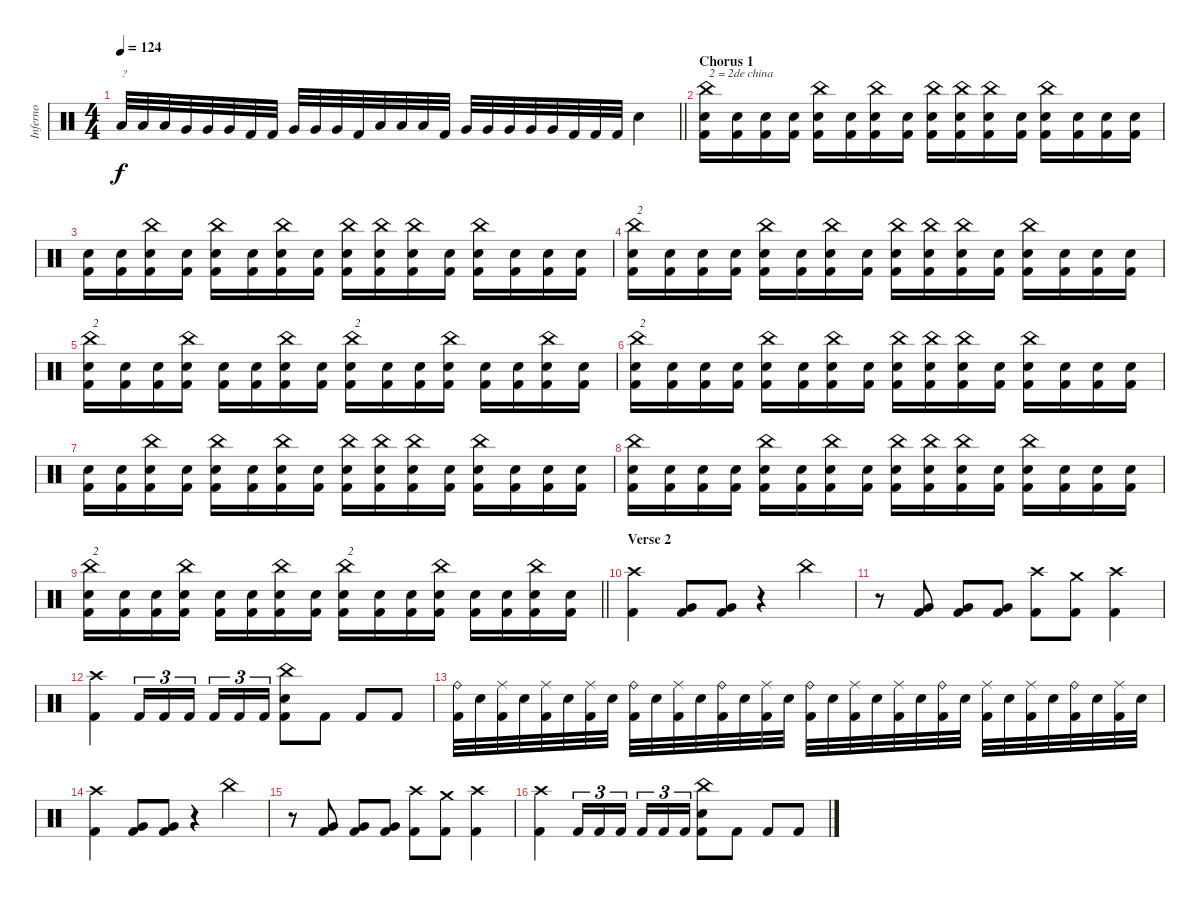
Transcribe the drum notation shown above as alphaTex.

\track ("Inferno" "Inferno") {instrument percussion}
\staff {score}
\articulation defaults
\ts (4 4)
\tempo 124
\clef neutral
\barLineRight lightlight
\ks c "Low Tom (hit)".32{txt "?" dy f} "Low Tom (hit)".32 "Low Tom (hit)".32 "Very Low Tom (hit)".32 "Very Low Tom (hit)".32 "Very Low Tom (hit)".32 "Kick (hit) 2".32 "Kick (hit) 2".32 "Very Low Tom (hit)".32 "Very Low Tom (hit)".32 "Very Low Tom (hit)".32 "Kick (hit) 2".32 "Low Floor Tom (hit)".32 "Low Floor Tom (hit)".32 "Low Floor Tom (hit)".32 "Kick (hit) 2".32 "Very Low Tom (hit)".32 "Very Low Tom (hit)".32 "Very Low Tom (hit)".32 "Very Low Tom (hit)".32 "Very Low Tom (hit)".32 "Kick (hit) 2".32 "Kick (hit) 2".32 "Kick (hit) 2".32 "Electric Snare (hit)".4
|
\section ("" "Chorus 1")
("China (hit)" "Electric Snare (hit)" "Kick (hit) 2").16{txt "2 = 2de china"} ("Electric Snare (hit)" "Kick (hit) 2").16 ("Electric Snare (hit)" "Kick (hit) 2").16 ("Electric Snare (hit)" "Kick (hit) 2").16 ("China (hit)" "Electric Snare (hit)" "Kick (hit) 2").16 ("Electric Snare (hit)" "Kick (hit) 2").16 ("China (hit)" "Electric Snare (hit)" "Kick (hit) 2").16 ("Electric Snare (hit)" "Kick (hit) 2").16 ("China (hit)" "Electric Snare (hit)" "Kick (hit) 2").16 ("China (hit)" "Electric Snare (hit)" "Kick (hit) 2").16 ("China (hit)" "Electric Snare (hit)" "Kick (hit) 2").16 ("Electric Snare (hit)" "Kick (hit) 2").16 ("China (hit)" "Electric Snare (hit)" "Kick (hit) 2").16 ("Electric Snare (hit)" "Kick (hit) 2").16 ("Electric Snare (hit)" "Kick (hit) 2").16 ("Electric Snare (hit)" "Kick (hit) 2").16 |
("Electric Snare (hit)" "Kick (hit) 2").16 ("Electric Snare (hit)" "Kick (hit) 2").16 ("China (hit)" "Electric Snare (hit)" "Kick (hit) 2").16 ("Electric Snare (hit)" "Kick (hit) 2").16 ("China (hit)" "Electric Snare (hit)" "Kick (hit) 2").16 ("Electric Snare (hit)" "Kick (hit) 2").16 ("China (hit)" "Electric Snare (hit)" "Kick (hit) 2").16 ("Electric Snare (hit)" "Kick (hit) 2").16 ("China (hit)" "Electric Snare (hit)" "Kick (hit) 2").16 ("China (hit)" "Electric Snare (hit)" "Kick (hit) 2").16 ("China (hit)" "Electric Snare (hit)" "Kick (hit) 2").16 ("Electric Snare (hit)" "Kick (hit) 2").16 ("China (hit)" "Electric Snare (hit)" "Kick (hit) 2").16 ("Electric Snare (hit)" "Kick (hit) 2").16 ("Electric Snare (hit)" "Kick (hit) 2").16 ("Electric Snare (hit)" "Kick (hit) 2").16 |
("China (hit)" "Electric Snare (hit)" "Kick (hit) 2").16{txt "2"} ("Electric Snare (hit)" "Kick (hit) 2").16 ("Electric Snare (hit)" "Kick (hit) 2").16 ("Electric Snare (hit)" "Kick (hit) 2").16 ("China (hit)" "Electric Snare (hit)" "Kick (hit) 2").16 ("Electric Snare (hit)" "Kick (hit) 2").16 ("China (hit)" "Electric Snare (hit)" "Kick (hit) 2").16 ("Electric Snare (hit)" "Kick (hit) 2").16 ("China (hit)" "Electric Snare (hit)" "Kick (hit) 2").16 ("China (hit)" "Electric Snare (hit)" "Kick (hit) 2").16 ("China (hit)" "Electric Snare (hit)" "Kick (hit) 2").16 ("Electric Snare (hit)" "Kick (hit) 2").16 ("China (hit)" "Electric Snare (hit)" "Kick (hit) 2").16 ("Electric Snare (hit)" "Kick (hit) 2").16 ("Electric Snare (hit)" "Kick (hit) 2").16 ("Electric Snare (hit)" "Kick (hit) 2").16 |
("China (hit)" "Electric Snare (hit)" "Kick (hit) 2").16{txt "2"} ("Electric Snare (hit)" "Kick (hit) 2").16 ("Electric Snare (hit)" "Kick (hit) 2").16 ("China (hit)" "Electric Snare (hit)" "Kick (hit) 2").16 ("Electric Snare (hit)" "Kick (hit) 2").16 ("Electric Snare (hit)" "Kick (hit) 2").16 ("China (hit)" "Electric Snare (hit)" "Kick (hit) 2").16 ("Electric Snare (hit)" "Kick (hit) 2").16 ("China (hit)" "Electric Snare (hit)" "Kick (hit) 2").16{txt "2"} ("Electric Snare (hit)" "Kick (hit) 2").16 ("Electric Snare (hit)" "Kick (hit) 2").16 ("China (hit)" "Electric Snare (hit)" "Kick (hit) 2").16 ("Electric Snare (hit)" "Kick (hit) 2").16 ("Electric Snare (hit)" "Kick (hit) 2").16 ("China (hit)" "Electric Snare (hit)" "Kick (hit) 2").16 ("Electric Snare (hit)" "Kick (hit) 2").16 |
("China (hit)" "Electric Snare (hit)" "Kick (hit) 2").16{txt "2"} ("Electric Snare (hit)" "Kick (hit) 2").16 ("Electric Snare (hit)" "Kick (hit) 2").16 ("Electric Snare (hit)" "Kick (hit) 2").16 ("China (hit)" "Electric Snare (hit)" "Kick (hit) 2").16 ("Electric Snare (hit)" "Kick (hit) 2").16 ("China (hit)" "Electric Snare (hit)" "Kick (hit) 2").16 ("Electric Snare (hit)" "Kick (hit) 2").16 ("China (hit)" "Electric Snare (hit)" "Kick (hit) 2").16 ("China (hit)" "Electric Snare (hit)" "Kick (hit) 2").16 ("China (hit)" "Electric Snare (hit)" "Kick (hit) 2").16 ("Electric Snare (hit)" "Kick (hit) 2").16 ("China (hit)" "Electric Snare (hit)" "Kick (hit) 2").16 ("Electric Snare (hit)" "Kick (hit) 2").16 ("Electric Snare (hit)" "Kick (hit) 2").16 ("Electric Snare (hit)" "Kick (hit) 2").16 |
("Electric Snare (hit)" "Kick (hit) 2").16 ("Electric Snare (hit)" "Kick (hit) 2").16 ("China (hit)" "Electric Snare (hit)" "Kick (hit) 2").16 ("Electric Snare (hit)" "Kick (hit) 2").16 ("China (hit)" "Electric Snare (hit)" "Kick (hit) 2").16 ("Electric Snare (hit)" "Kick (hit) 2").16 ("China (hit)" "Electric Snare (hit)" "Kick (hit) 2").16 ("Electric Snare (hit)" "Kick (hit) 2").16 ("China (hit)" "Electric Snare (hit)" "Kick (hit) 2").16 ("China (hit)" "Electric Snare (hit)" "Kick (hit) 2").16 ("China (hit)" "Electric Snare (hit)" "Kick (hit) 2").16 ("Electric Snare (hit)" "Kick (hit) 2").16 ("China (hit)" "Electric Snare (hit)" "Kick (hit) 2").16 ("Electric Snare (hit)" "Kick (hit) 2").16 ("Electric Snare (hit)" "Kick (hit) 2").16 ("Electric Snare (hit)" "Kick (hit) 2").16 |
("China (hit)" "Electric Snare (hit)" "Kick (hit) 2").16 ("Electric Snare (hit)" "Kick (hit) 2").16 ("Electric Snare (hit)" "Kick (hit) 2").16 ("Electric Snare (hit)" "Kick (hit) 2").16 ("China (hit)" "Electric Snare (hit)" "Kick (hit) 2").16 ("Electric Snare (hit)" "Kick (hit) 2").16 ("China (hit)" "Electric Snare (hit)" "Kick (hit) 2").16 ("Electric Snare (hit)" "Kick (hit) 2").16 ("China (hit)" "Electric Snare (hit)" "Kick (hit) 2").16 ("China (hit)" "Electric Snare (hit)" "Kick (hit) 2").16 ("China (hit)" "Electric Snare (hit)" "Kick (hit) 2").16 ("Electric Snare (hit)" "Kick (hit) 2").16 ("China (hit)" "Electric Snare (hit)" "Kick (hit) 2").16 ("Electric Snare (hit)" "Kick (hit) 2").16 ("Electric Snare (hit)" "Kick (hit) 2").16 ("Electric Snare (hit)" "Kick (hit) 2").16 |
\barLineRight lightlight
("China (hit)" "Electric Snare (hit)" "Kick (hit) 2").16{txt "2"} ("Electric Snare (hit)" "Kick (hit) 2").16 ("Electric Snare (hit)" "Kick (hit) 2").16 ("China (hit)" "Electric Snare (hit)" "Kick (hit) 2").16 ("Electric Snare (hit)" "Kick (hit) 2").16 ("Electric Snare (hit)" "Kick (hit) 2").16 ("China (hit)" "Electric Snare (hit)" "Kick (hit) 2").16 ("Electric Snare (hit)" "Kick (hit) 2").16 ("China (hit)" "Electric Snare (hit)" "Kick (hit) 2").16{txt "2"} ("Electric Snare (hit)" "Kick (hit) 2").16 ("Electric Snare (hit)" "Kick (hit) 2").16 ("China (hit)" "Electric Snare (hit)" "Kick (hit) 2").16 ("Electric Snare (hit)" "Kick (hit) 2").16 ("Electric Snare (hit)" "Kick (hit) 2").16 ("China (hit)" "Electric Snare (hit)" "Kick (hit) 2").16 ("Electric Snare (hit)" "Kick (hit) 2").16 |
\section ("" "Verse 2")
("Crash high (hit)" "Kick (hit) 2").4 ("Very Low Tom (hit)" "Kick (hit) 2").8 ("Very Low Tom (hit)" "Kick (hit) 2").8 r.4 "China (hit)".4 |
r.8 ("Very Low Tom (hit)" "Kick (hit) 2").8 ("Very Low Tom (hit)" "Kick (hit) 2").8 ("Very Low Tom (hit)" "Kick (hit) 2").8 ("Crash high (hit)" "Kick (hit) 2").8 ("Crash medium (hit)" "Kick (hit) 2").8 ("Crash high (hit)" "Kick (hit) 2").4 |
("Crash high (hit)" "Kick (hit) 2").4 "Kick (hit) 2".16{tu (3 2)} "Kick (hit) 2".16{tu (3 2)} "Kick (hit) 2".16{tu (3 2) beam splitsecondary} "Kick (hit) 2".16{tu (3 2)} "Kick (hit) 2".16{tu (3 2)} "Kick (hit) 2".16{tu (3 2)} ("China (hit)" "Electric Snare (hit)" "Kick (hit) 2").8 "Kick (hit) 2".8 "Kick (hit) 2".8 "Kick (hit) 2".8 |
("Ride (bell)" "Kick (hit) 2").32 "Electric Snare (hit)".32 ("Ride (middle)" "Kick (hit) 2").32 "Electric Snare (hit)".32 ("Ride (middle)" "Kick (hit) 2").32 "Electric Snare (hit)".32 ("Ride (middle)" "Kick (hit) 2").32 "Electric Snare (hit)".32 ("Ride (bell)" "Kick (hit) 2").32 "Electric Snare (hit)".32 ("Ride (middle)" "Kick (hit) 2").32 "Electric Snare (hit)".32 ("Ride (bell)" "Kick (hit) 2").32 "Electric Snare (hit)".32 ("Ride (middle)" "Kick (hit) 2").32 "Electric Snare (hit)".32 ("Ride (bell)" "Kick (hit) 2").32 "Electric Snare (hit)".32 ("Ride (middle)" "Kick (hit) 2").32 "Electric Snare (hit)".32 ("Ride (middle)" "Kick (hit) 2").32 "Electric Snare (hit)".32 ("Ride (bell)" "Kick (hit) 2").32 "Electric Snare (hit)".32 ("Ride (middle)" "Kick (hit) 2").32 "Electric Snare (hit)".32 ("Ride (middle)" "Kick (hit) 2").32 "Electric Snare (hit)".32 ("Ride (bell)" "Kick (hit) 2").32 "Electric Snare (hit)".32 ("Ride (middle)" "Kick (hit) 2").32 "Electric Snare (hit)".32 |
("Crash high (hit)" "Kick (hit) 2").4 ("Very Low Tom (hit)" "Kick (hit) 2").8 ("Very Low Tom (hit)" "Kick (hit) 2").8 r.4 "China (hit)".4 |
r.8 ("Very Low Tom (hit)" "Kick (hit) 2").8 ("Very Low Tom (hit)" "Kick (hit) 2").8 ("Very Low Tom (hit)" "Kick (hit) 2").8 ("Crash high (hit)" "Kick (hit) 2").8 ("Crash medium (hit)" "Kick (hit) 2").8 ("Crash high (hit)" "Kick (hit) 2").4 |
("Crash high (hit)" "Kick (hit) 2").4 "Kick (hit) 2".16{tu (3 2)} "Kick (hit) 2".16{tu (3 2)} "Kick (hit) 2".16{tu (3 2) beam splitsecondary} "Kick (hit) 2".16{tu (3 2)} "Kick (hit) 2".16{tu (3 2)} "Kick (hit) 2".16{tu (3 2)} ("China (hit)" "Electric Snare (hit)" "Kick (hit) 2").8 "Kick (hit) 2".8 "Kick (hit) 2".8 "Kick (hit) 2".8
